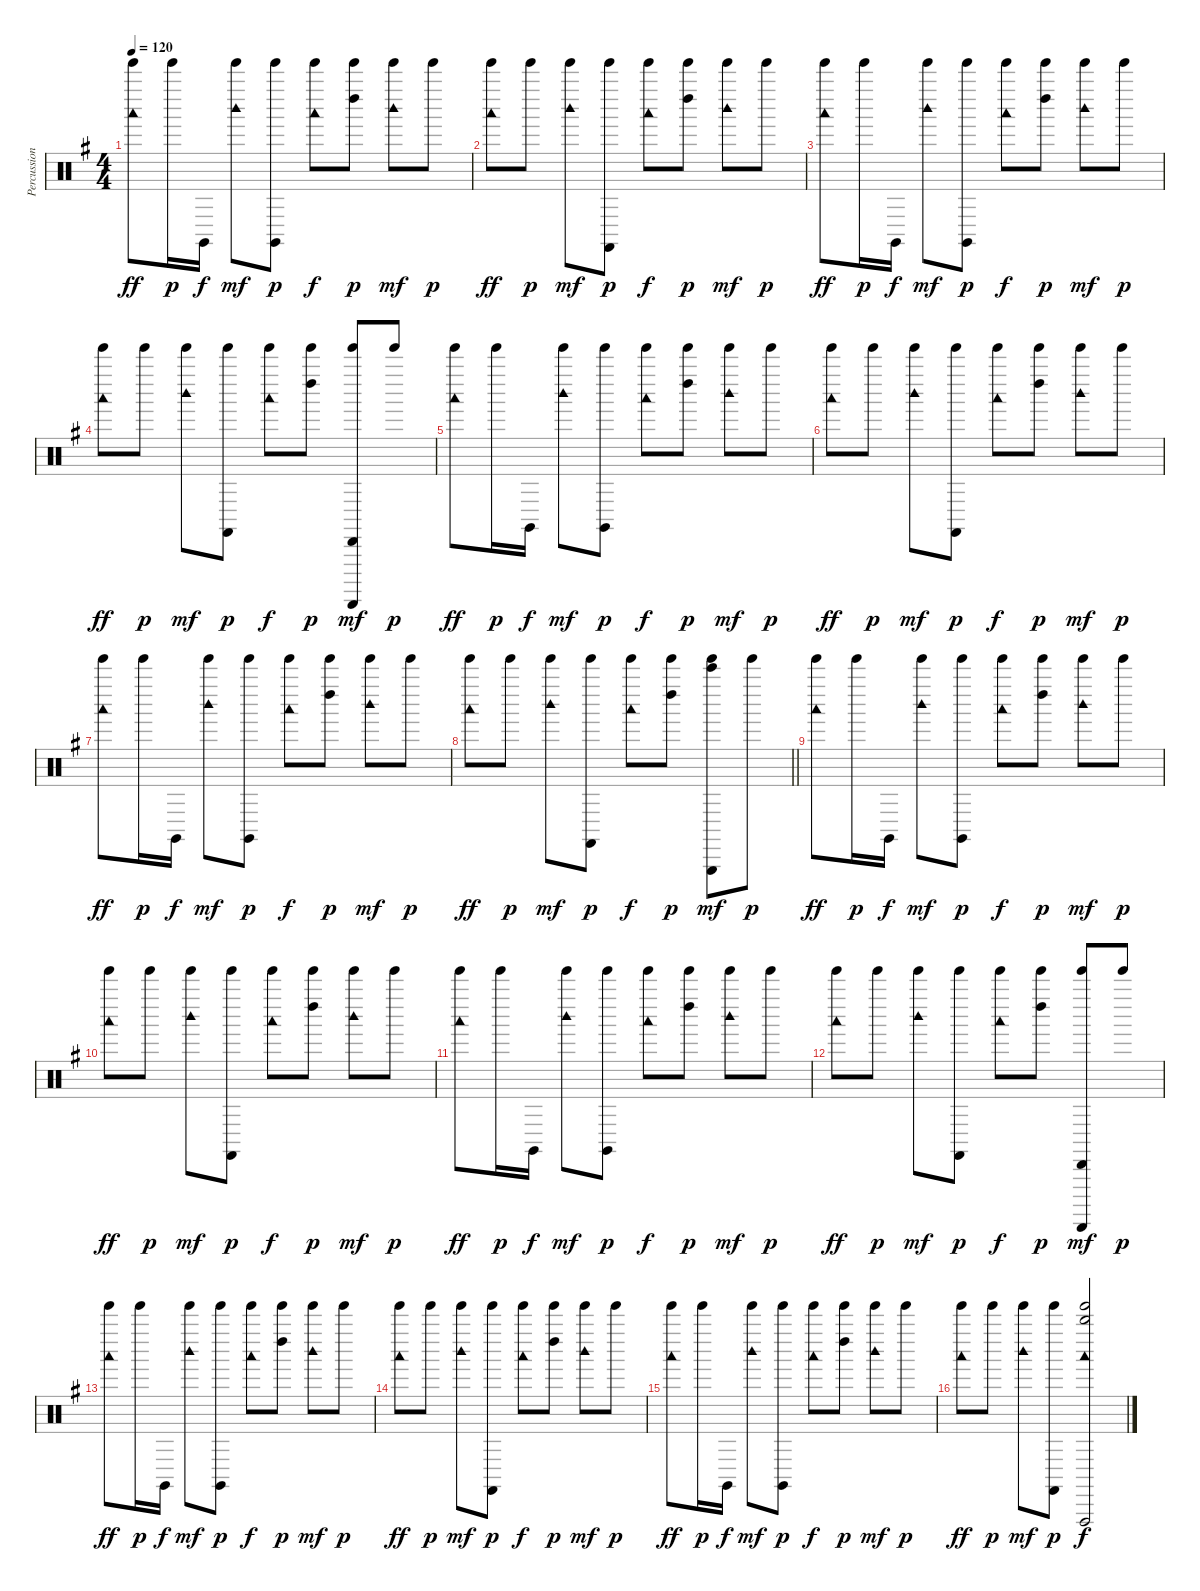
\track ("Percussion" "Percussion") {instrument percussion}
\staff {score}
\articulation defaults
\ts (4 4)
\tempo 120
\clef neutral
\ks g
("Tinkle Bell (hit)" "Woodblock low (hit)").8{dy ff} "Tinkle Bell (hit)".16{dy p} "Claves (hit)".16{dy f} ("Tinkle Bell (hit)" "Woodblock high (hit)").8{dy mf} ("Tinkle Bell (hit)" "Claves (hit)").8{dy p} ("Tinkle Bell (hit)" "Woodblock low (hit)").8{dy f} ("Tinkle Bell (hit)" "Left Maraca (hit)").8{dy p} ("Tinkle Bell (hit)" "Woodblock high (hit)").8{dy mf} "Tinkle Bell (hit)".8{dy p} |
("Tinkle Bell (hit)" "Woodblock low (hit)").8{dy ff} "Tinkle Bell (hit)".8{dy p} ("Tinkle Bell (hit)" "Woodblock high (hit)").8{dy mf} ("Tinkle Bell (hit)" "Castanets (hit)").8{dy p} ("Tinkle Bell (hit)" "Woodblock low (hit)").8{dy f} ("Tinkle Bell (hit)" "Left Maraca (hit)").8{dy p} ("Tinkle Bell (hit)" "Woodblock high (hit)").8{dy mf} "Tinkle Bell (hit)".8{dy p} |
("Tinkle Bell (hit)" "Woodblock low (hit)").8{dy ff} "Tinkle Bell (hit)".16{dy p} "Claves (hit)".16{dy f} ("Tinkle Bell (hit)" "Woodblock high (hit)").8{dy mf} ("Tinkle Bell (hit)" "Claves (hit)").8{dy p} ("Tinkle Bell (hit)" "Woodblock low (hit)").8{dy f} ("Tinkle Bell (hit)" "Left Maraca (hit)").8{dy p} ("Tinkle Bell (hit)" "Woodblock high (hit)").8{dy mf} "Tinkle Bell (hit)".8{dy p} |
("Tinkle Bell (hit)" "Woodblock low (hit)").8{dy ff} "Tinkle Bell (hit)".8{dy p} ("Tinkle Bell (hit)" "Woodblock high (hit)").8{dy mf} ("Tinkle Bell (hit)" "Castanets (hit)").8{dy p} ("Tinkle Bell (hit)" "Woodblock low (hit)").8{dy f} ("Tinkle Bell (hit)" "Left Maraca (hit)").8{dy p} ("Tinkle Bell (hit)" "Cabasa (hit)" "Guiro (scrap-return)").8{dy mf} "Tinkle Bell (hit)".8{dy p} |
("Tinkle Bell (hit)" "Woodblock low (hit)").8{dy ff} "Tinkle Bell (hit)".16{dy p} "Claves (hit)".16{dy f} ("Tinkle Bell (hit)" "Woodblock high (hit)").8{dy mf} ("Tinkle Bell (hit)" "Claves (hit)").8{dy p} ("Tinkle Bell (hit)" "Woodblock low (hit)").8{dy f} ("Tinkle Bell (hit)" "Left Maraca (hit)").8{dy p} ("Tinkle Bell (hit)" "Woodblock high (hit)").8{dy mf} "Tinkle Bell (hit)".8{dy p} |
("Tinkle Bell (hit)" "Woodblock low (hit)").8{dy ff} "Tinkle Bell (hit)".8{dy p} ("Tinkle Bell (hit)" "Woodblock high (hit)").8{dy mf} ("Tinkle Bell (hit)" "Castanets (hit)").8{dy p} ("Tinkle Bell (hit)" "Woodblock low (hit)").8{dy f} ("Tinkle Bell (hit)" "Left Maraca (hit)").8{dy p} ("Tinkle Bell (hit)" "Woodblock high (hit)").8{dy mf} "Tinkle Bell (hit)".8{dy p} |
("Tinkle Bell (hit)" "Woodblock low (hit)").8{dy ff} "Tinkle Bell (hit)".16{dy p} "Claves (hit)".16{dy f} ("Tinkle Bell (hit)" "Woodblock high (hit)").8{dy mf} ("Tinkle Bell (hit)" "Claves (hit)").8{dy p} ("Tinkle Bell (hit)" "Woodblock low (hit)").8{dy f} ("Tinkle Bell (hit)" "Left Maraca (hit)").8{dy p} ("Tinkle Bell (hit)" "Woodblock high (hit)").8{dy mf} "Tinkle Bell (hit)".8{dy p} |
\barLineRight lightlight
("Tinkle Bell (hit)" "Woodblock low (hit)").8{dy ff} "Tinkle Bell (hit)".8{dy p} ("Tinkle Bell (hit)" "Woodblock high (hit)").8{dy mf} ("Tinkle Bell (hit)" "Castanets (hit)").8{dy p} ("Tinkle Bell (hit)" "Woodblock low (hit)").8{dy f} ("Tinkle Bell (hit)" "Left Maraca (hit)").8{dy p} ("Tinkle Bell (hit)" "Bell Tree (hit)" "Triangle (hit)").8{dy mf} "Tinkle Bell (hit)".8{dy p} |
("Tinkle Bell (hit)" "Woodblock low (hit)").8{dy ff} "Tinkle Bell (hit)".16{dy p} "Claves (hit)".16{dy f} ("Tinkle Bell (hit)" "Woodblock high (hit)").8{dy mf} ("Tinkle Bell (hit)" "Claves (hit)").8{dy p} ("Tinkle Bell (hit)" "Woodblock low (hit)").8{dy f} ("Tinkle Bell (hit)" "Left Maraca (hit)").8{dy p} ("Tinkle Bell (hit)" "Woodblock high (hit)").8{dy mf} "Tinkle Bell (hit)".8{dy p} |
("Tinkle Bell (hit)" "Woodblock low (hit)").8{dy ff} "Tinkle Bell (hit)".8{dy p} ("Tinkle Bell (hit)" "Woodblock high (hit)").8{dy mf} ("Tinkle Bell (hit)" "Castanets (hit)").8{dy p} ("Tinkle Bell (hit)" "Woodblock low (hit)").8{dy f} ("Tinkle Bell (hit)" "Left Maraca (hit)").8{dy p} ("Tinkle Bell (hit)" "Woodblock high (hit)").8{dy mf} "Tinkle Bell (hit)".8{dy p} |
("Tinkle Bell (hit)" "Woodblock low (hit)").8{dy ff} "Tinkle Bell (hit)".16{dy p} "Claves (hit)".16{dy f} ("Tinkle Bell (hit)" "Woodblock high (hit)").8{dy mf} ("Tinkle Bell (hit)" "Claves (hit)").8{dy p} ("Tinkle Bell (hit)" "Woodblock low (hit)").8{dy f} ("Tinkle Bell (hit)" "Left Maraca (hit)").8{dy p} ("Tinkle Bell (hit)" "Woodblock high (hit)").8{dy mf} "Tinkle Bell (hit)".8{dy p} |
("Tinkle Bell (hit)" "Woodblock low (hit)").8{dy ff} "Tinkle Bell (hit)".8{dy p} ("Tinkle Bell (hit)" "Woodblock high (hit)").8{dy mf} ("Tinkle Bell (hit)" "Castanets (hit)").8{dy p} ("Tinkle Bell (hit)" "Woodblock low (hit)").8{dy f} ("Tinkle Bell (hit)" "Left Maraca (hit)").8{dy p} ("Tinkle Bell (hit)" "Cabasa (hit)" "Guiro (scrap-return)").8{dy mf} "Tinkle Bell (hit)".8{dy p} |
("Tinkle Bell (hit)" "Woodblock low (hit)").8{dy ff} "Tinkle Bell (hit)".16{dy p} "Claves (hit)".16{dy f} ("Tinkle Bell (hit)" "Woodblock high (hit)").8{dy mf} ("Tinkle Bell (hit)" "Claves (hit)").8{dy p} ("Tinkle Bell (hit)" "Woodblock low (hit)").8{dy f} ("Tinkle Bell (hit)" "Left Maraca (hit)").8{dy p} ("Tinkle Bell (hit)" "Woodblock high (hit)").8{dy mf} "Tinkle Bell (hit)".8{dy p} |
("Tinkle Bell (hit)" "Woodblock low (hit)").8{dy ff} "Tinkle Bell (hit)".8{dy p} ("Tinkle Bell (hit)" "Woodblock high (hit)").8{dy mf} ("Tinkle Bell (hit)" "Castanets (hit)").8{dy p} ("Tinkle Bell (hit)" "Woodblock low (hit)").8{dy f} ("Tinkle Bell (hit)" "Left Maraca (hit)").8{dy p} ("Tinkle Bell (hit)" "Woodblock high (hit)").8{dy mf} "Tinkle Bell (hit)".8{dy p} |
("Tinkle Bell (hit)" "Woodblock low (hit)").8{dy ff} "Tinkle Bell (hit)".16{dy p} "Claves (hit)".16{dy f} ("Tinkle Bell (hit)" "Woodblock high (hit)").8{dy mf} ("Tinkle Bell (hit)" "Claves (hit)").8{dy p} ("Tinkle Bell (hit)" "Woodblock low (hit)").8{dy f} ("Tinkle Bell (hit)" "Left Maraca (hit)").8{dy p} ("Tinkle Bell (hit)" "Woodblock high (hit)").8{dy mf} "Tinkle Bell (hit)".8{dy p} |
("Tinkle Bell (hit)" "Woodblock low (hit)").8{dy ff} "Tinkle Bell (hit)".8{dy p} ("Tinkle Bell (hit)" "Woodblock high (hit)").8{dy mf} ("Tinkle Bell (hit)" "Castanets (hit)").8{dy p} ("Tinkle Bell (hit)" "Whistle high (hit)" "Vibraslap (hit)" "Woodblock low (hit)").2{dy f}
